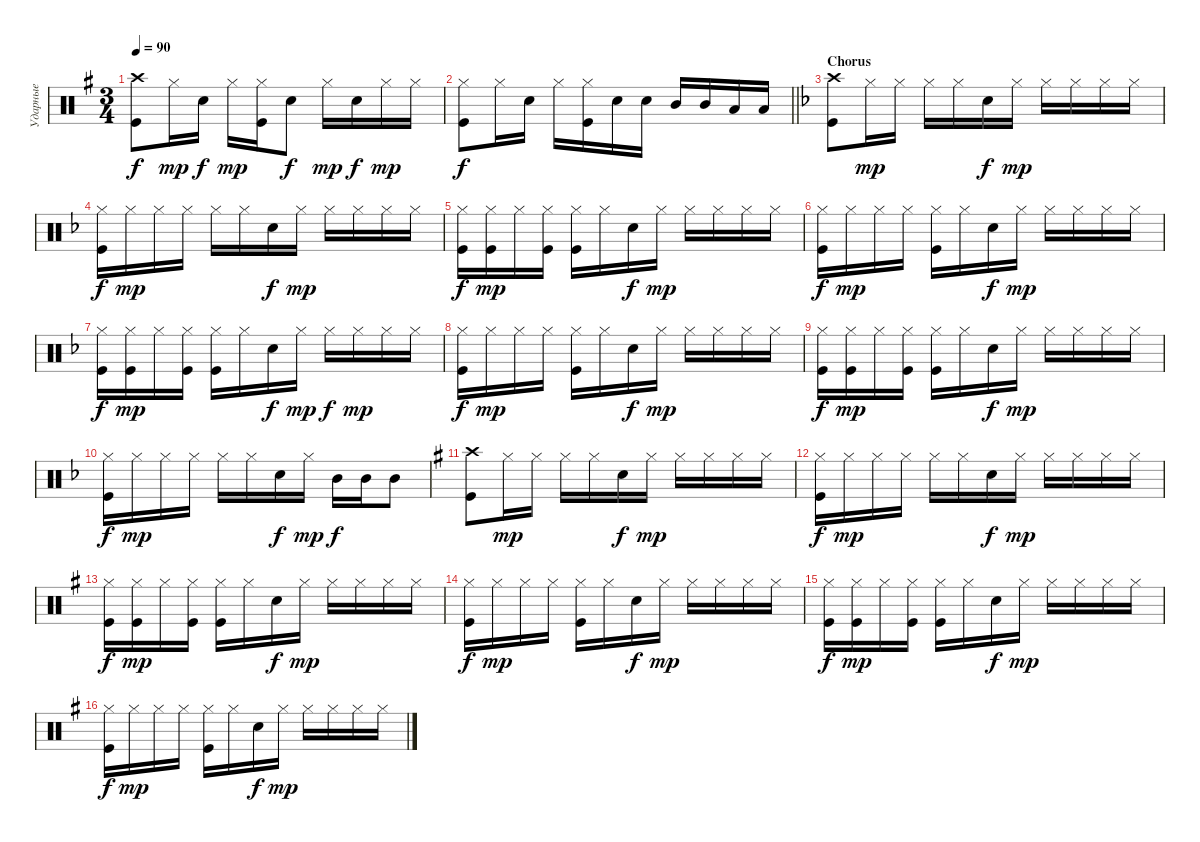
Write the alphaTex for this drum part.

\track ("Ударные" "Ударные") {instrument percussion}
\staff {score}
\articulation defaults
\ts (3 4)
\tempo 90
\clef neutral
\ks eminor
("Crash high (hit)" "Kick (hit)").8{dy f} "Hi-Hat (closed)".16{dy mp} "Snare (hit) 2".16{dy f} "Hi-Hat (closed)".16{dy mp} ("Hi-Hat (closed)" "Kick (hit)").16 "Snare (hit) 2".8{dy f} "Hi-Hat (closed)".16{dy mp} "Snare (hit) 2".16{dy f} "Hi-Hat (closed)".16{dy mp} "Hi-Hat (closed)".16 |
\barLineRight lightlight
("Kick (hit)" "Hi-Hat (closed)").8{dy f} "Hi-Hat (closed)".16 "Snare (hit) 2".16 "Hi-Hat (closed)".16 ("Hi-Hat (closed)" "Kick (hit)").16 "Snare (hit) 2".16 "Snare (hit) 2".16 "Mid Tom (hit)".16 "Mid Tom (hit)".16 "Low Tom (hit)".16 "Low Tom (hit)".16 |
\section ("" "Chorus")
\ks dminor
("Crash high (hit)" "Kick (hit)").8 "Hi-Hat (closed)".16{dy mp} "Hi-Hat (closed)".16 "Hi-Hat (closed)".16 "Hi-Hat (closed)".16 "Snare (hit) 2".16{dy f} "Hi-Hat (closed)".16{dy mp} "Hi-Hat (closed)".16 "Hi-Hat (closed)".16 "Hi-Hat (closed)".16 "Hi-Hat (closed)".16 |
("Hi-Hat (closed)" "Kick (hit)").16{dy f} "Hi-Hat (closed)".16{dy mp} "Hi-Hat (closed)".16 "Hi-Hat (closed)".16 "Hi-Hat (closed)".16 "Hi-Hat (closed)".16 "Snare (hit) 2".16{dy f} "Hi-Hat (closed)".16{dy mp} "Hi-Hat (closed)".16 "Hi-Hat (closed)".16 "Hi-Hat (closed)".16 "Hi-Hat (closed)".16 |
("Hi-Hat (closed)" "Kick (hit)").16{dy f} ("Hi-Hat (closed)" "Kick (hit)").16{dy mp} "Hi-Hat (closed)".16 ("Hi-Hat (closed)" "Kick (hit)").16 ("Hi-Hat (closed)" "Kick (hit)").16 "Hi-Hat (closed)".16 "Snare (hit) 2".16{dy f} "Hi-Hat (closed)".16{dy mp} "Hi-Hat (closed)".16 "Hi-Hat (closed)".16 "Hi-Hat (closed)".16 "Hi-Hat (closed)".16 |
("Hi-Hat (closed)" "Kick (hit)").16{dy f} "Hi-Hat (closed)".16{dy mp} "Hi-Hat (closed)".16 "Hi-Hat (closed)".16 ("Hi-Hat (closed)" "Kick (hit)").16 "Hi-Hat (closed)".16 "Snare (hit) 2".16{dy f} "Hi-Hat (closed)".16{dy mp} "Hi-Hat (closed)".16 "Hi-Hat (closed)".16 "Hi-Hat (closed)".16 "Hi-Hat (closed)".16 |
("Hi-Hat (closed)" "Kick (hit)").16{dy f} ("Hi-Hat (closed)" "Kick (hit)").16{dy mp} "Hi-Hat (closed)".16 ("Hi-Hat (closed)" "Kick (hit)").16 ("Hi-Hat (closed)" "Kick (hit)").16 "Hi-Hat (closed)".16 "Snare (hit) 2".16{dy f} "Hi-Hat (closed)".16{dy mp} "Hi-Hat (closed)".16{dy f} "Hi-Hat (closed)".16{dy mp} "Hi-Hat (closed)".16 "Hi-Hat (closed)".16 |
("Hi-Hat (closed)" "Kick (hit)").16{dy f} "Hi-Hat (closed)".16{dy mp} "Hi-Hat (closed)".16 "Hi-Hat (closed)".16 ("Hi-Hat (closed)" "Kick (hit)").16 "Hi-Hat (closed)".16 "Snare (hit) 2".16{dy f} "Hi-Hat (closed)".16{dy mp} "Hi-Hat (closed)".16 "Hi-Hat (closed)".16 "Hi-Hat (closed)".16 "Hi-Hat (closed)".16 |
("Hi-Hat (closed)" "Kick (hit)").16{dy f} ("Hi-Hat (closed)" "Kick (hit)").16{dy mp} "Hi-Hat (closed)".16 ("Hi-Hat (closed)" "Kick (hit)").16 ("Hi-Hat (closed)" "Kick (hit)").16 "Hi-Hat (closed)".16 "Snare (hit) 2".16{dy f} "Hi-Hat (closed)".16{dy mp} "Hi-Hat (closed)".16 "Hi-Hat (closed)".16 "Hi-Hat (closed)".16 "Hi-Hat (closed)".16 |
("Hi-Hat (closed)" "Kick (hit)").16{dy f} "Hi-Hat (closed)".16{dy mp} "Hi-Hat (closed)".16 "Hi-Hat (closed)".16 "Hi-Hat (closed)".16 "Hi-Hat (closed)".16 "Snare (hit) 2".16{dy f} "Hi-Hat (closed)".16{dy mp} "Mid Tom (hit)".16{dy f} "Mid Tom (hit)".16 "Mid Tom (hit)".8 |
\ks eminor
("Crash high (hit)" "Kick (hit)").8 "Hi-Hat (closed)".16{dy mp} "Hi-Hat (closed)".16 "Hi-Hat (closed)".16 "Hi-Hat (closed)".16 "Snare (hit) 2".16{dy f} "Hi-Hat (closed)".16{dy mp} "Hi-Hat (closed)".16 "Hi-Hat (closed)".16 "Hi-Hat (closed)".16 "Hi-Hat (closed)".16 |
("Hi-Hat (closed)" "Kick (hit)").16{dy f} "Hi-Hat (closed)".16{dy mp} "Hi-Hat (closed)".16 "Hi-Hat (closed)".16 "Hi-Hat (closed)".16 "Hi-Hat (closed)".16 "Snare (hit) 2".16{dy f} "Hi-Hat (closed)".16{dy mp} "Hi-Hat (closed)".16 "Hi-Hat (closed)".16 "Hi-Hat (closed)".16 "Hi-Hat (closed)".16 |
("Hi-Hat (closed)" "Kick (hit)").16{dy f} ("Hi-Hat (closed)" "Kick (hit)").16{dy mp} "Hi-Hat (closed)".16 ("Hi-Hat (closed)" "Kick (hit)").16 ("Hi-Hat (closed)" "Kick (hit)").16 "Hi-Hat (closed)".16 "Snare (hit) 2".16{dy f} "Hi-Hat (closed)".16{dy mp} "Hi-Hat (closed)".16 "Hi-Hat (closed)".16 "Hi-Hat (closed)".16 "Hi-Hat (closed)".16 |
("Hi-Hat (closed)" "Kick (hit)").16{dy f} "Hi-Hat (closed)".16{dy mp} "Hi-Hat (closed)".16 "Hi-Hat (closed)".16 ("Hi-Hat (closed)" "Kick (hit)").16 "Hi-Hat (closed)".16 "Snare (hit) 2".16{dy f} "Hi-Hat (closed)".16{dy mp} "Hi-Hat (closed)".16 "Hi-Hat (closed)".16 "Hi-Hat (closed)".16 "Hi-Hat (closed)".16 |
("Hi-Hat (closed)" "Kick (hit)").16{dy f} ("Hi-Hat (closed)" "Kick (hit)").16{dy mp} "Hi-Hat (closed)".16 ("Hi-Hat (closed)" "Kick (hit)").16 ("Hi-Hat (closed)" "Kick (hit)").16 "Hi-Hat (closed)".16 "Snare (hit) 2".16{dy f} "Hi-Hat (closed)".16{dy mp} "Hi-Hat (closed)".16 "Hi-Hat (closed)".16 "Hi-Hat (closed)".16 "Hi-Hat (closed)".16 |
("Hi-Hat (closed)" "Kick (hit)").16{dy f} "Hi-Hat (closed)".16{dy mp} "Hi-Hat (closed)".16 "Hi-Hat (closed)".16 ("Hi-Hat (closed)" "Kick (hit)").16 "Hi-Hat (closed)".16 "Snare (hit) 2".16{dy f} "Hi-Hat (closed)".16{dy mp} "Hi-Hat (closed)".16 "Hi-Hat (closed)".16 "Hi-Hat (closed)".16 "Hi-Hat (closed)".16
